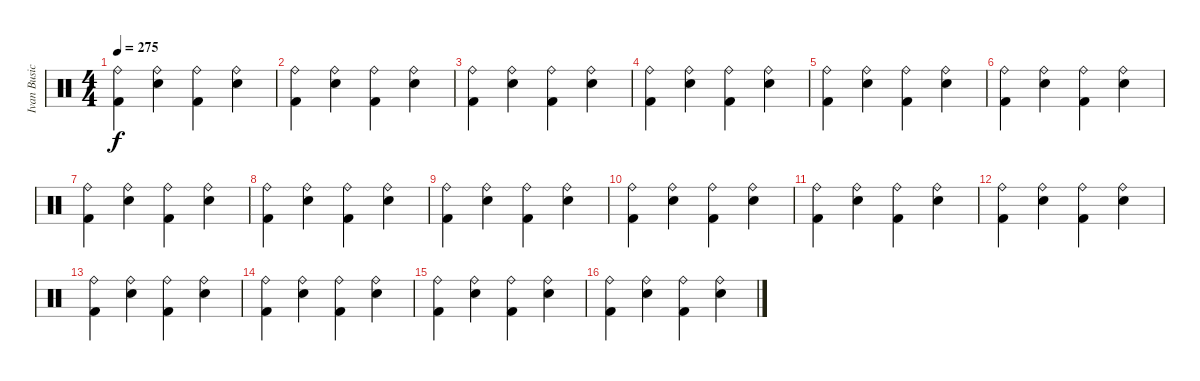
\track ("Ivan Busic" "Ivan Busic") {instrument percussion}
\staff {score}
\articulation defaults
\ts (4 4)
\tempo 275
\clef neutral
\ks c
("Ride (bell)" "Kick (hit) 2").4{dy f} ("Ride (bell)" "Electric Snare (hit)").4 ("Ride (bell)" "Kick (hit) 2").4 ("Ride (bell)" "Electric Snare (hit)").4 |
("Ride (bell)" "Kick (hit) 2").4 ("Ride (bell)" "Electric Snare (hit)").4 ("Ride (bell)" "Kick (hit) 2").4 ("Ride (bell)" "Electric Snare (hit)").4 |
("Ride (bell)" "Kick (hit) 2").4 ("Ride (bell)" "Electric Snare (hit)").4 ("Ride (bell)" "Kick (hit) 2").4 ("Ride (bell)" "Electric Snare (hit)").4 |
("Ride (bell)" "Kick (hit) 2").4 ("Ride (bell)" "Electric Snare (hit)").4 ("Ride (bell)" "Kick (hit) 2").4 ("Ride (bell)" "Electric Snare (hit)").4 |
("Ride (bell)" "Kick (hit) 2").4 ("Ride (bell)" "Electric Snare (hit)").4 ("Ride (bell)" "Kick (hit) 2").4 ("Ride (bell)" "Electric Snare (hit)").4 |
("Ride (bell)" "Kick (hit) 2").4 ("Ride (bell)" "Electric Snare (hit)").4 ("Ride (bell)" "Kick (hit) 2").4 ("Ride (bell)" "Electric Snare (hit)").4 |
("Ride (bell)" "Kick (hit) 2").4 ("Ride (bell)" "Electric Snare (hit)").4 ("Ride (bell)" "Kick (hit) 2").4 ("Ride (bell)" "Electric Snare (hit)").4 |
("Ride (bell)" "Kick (hit) 2").4 ("Ride (bell)" "Electric Snare (hit)").4 ("Ride (bell)" "Kick (hit) 2").4 ("Ride (bell)" "Electric Snare (hit)").4 |
("Ride (bell)" "Kick (hit) 2").4 ("Ride (bell)" "Electric Snare (hit)").4 ("Ride (bell)" "Kick (hit) 2").4 ("Ride (bell)" "Electric Snare (hit)").4 |
("Ride (bell)" "Kick (hit) 2").4 ("Ride (bell)" "Electric Snare (hit)").4 ("Ride (bell)" "Kick (hit) 2").4 ("Ride (bell)" "Electric Snare (hit)").4 |
("Ride (bell)" "Kick (hit) 2").4 ("Ride (bell)" "Electric Snare (hit)").4 ("Ride (bell)" "Kick (hit) 2").4 ("Ride (bell)" "Electric Snare (hit)").4 |
("Ride (bell)" "Kick (hit) 2").4 ("Ride (bell)" "Electric Snare (hit)").4 ("Ride (bell)" "Kick (hit) 2").4 ("Ride (bell)" "Electric Snare (hit)").4 |
("Ride (bell)" "Kick (hit) 2").4 ("Ride (bell)" "Electric Snare (hit)").4 ("Ride (bell)" "Kick (hit) 2").4 ("Ride (bell)" "Electric Snare (hit)").4 |
("Ride (bell)" "Kick (hit) 2").4 ("Ride (bell)" "Electric Snare (hit)").4 ("Ride (bell)" "Kick (hit) 2").4 ("Ride (bell)" "Electric Snare (hit)").4 |
("Ride (bell)" "Kick (hit) 2").4 ("Ride (bell)" "Electric Snare (hit)").4 ("Ride (bell)" "Kick (hit) 2").4 ("Ride (bell)" "Electric Snare (hit)").4 |
("Ride (bell)" "Kick (hit) 2").4 ("Ride (bell)" "Electric Snare (hit)").4 ("Ride (bell)" "Kick (hit) 2").4 ("Ride (bell)" "Electric Snare (hit)").4
